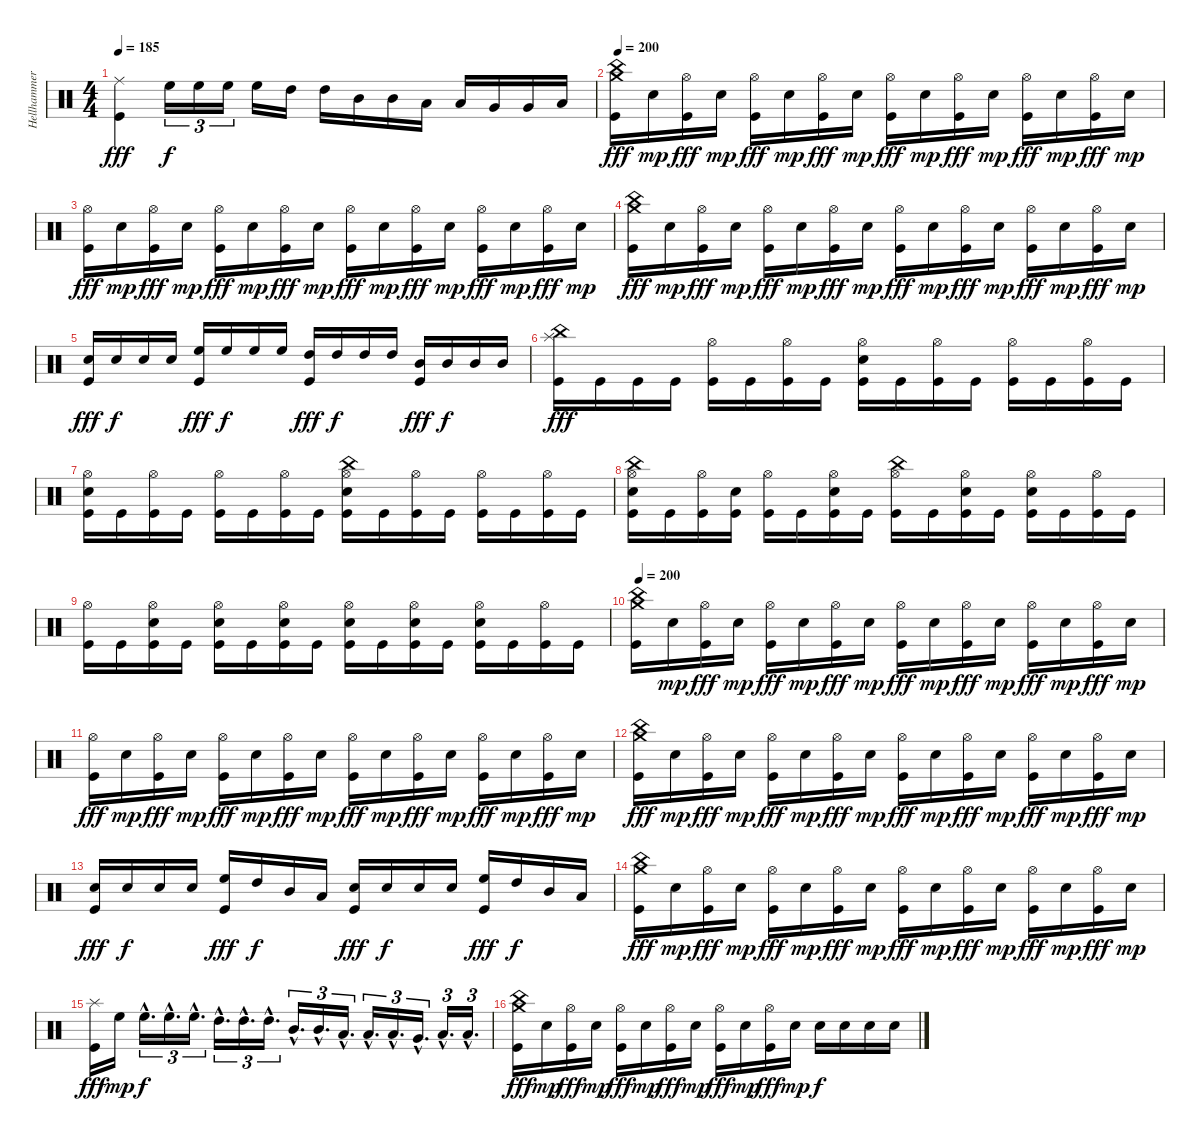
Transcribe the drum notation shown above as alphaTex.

\track ("Hellhammer" "Hellhammer") {instrument percussion}
\staff {score}
\articulation defaults
\ts (4 4)
\tempo 185
\clef neutral
\ks c
("Ride (middle)" "Kick (hit)").4{dy fff} "High Floor Tom (hit)".16{tu (3 2) dy f} "High Floor Tom (hit)".16{tu (3 2)} "High Floor Tom (hit)".16{tu (3 2)} "High Floor Tom (hit)".16 "High Tom (hit)".16 "High Tom (hit)".16 "Mid Tom (hit)".16 "Mid Tom (hit)".16 "Low Tom (hit)".16 "Low Tom (hit)".16 "Very Low Tom (hit)".16 "Very Low Tom (hit)".16 "Low Floor Tom (hit)".16 |
\tempo 200
("China (hit)" "Crash medium (hit)" "Kick (hit)").16{dy fff} "Electric Snare (hit)".16{dy mp} ("Hi-Hat (open)" "Kick (hit)").16{dy fff} "Electric Snare (hit)".16{dy mp} ("Hi-Hat (open)" "Kick (hit)").16{dy fff} "Electric Snare (hit)".16{dy mp} ("Hi-Hat (open)" "Kick (hit)").16{dy fff} "Electric Snare (hit)".16{dy mp} ("Hi-Hat (open)" "Kick (hit)").16{dy fff} "Electric Snare (hit)".16{dy mp} ("Hi-Hat (open)" "Kick (hit)").16{dy fff} "Electric Snare (hit)".16{dy mp} ("Hi-Hat (open)" "Kick (hit)").16{dy fff} "Electric Snare (hit)".16{dy mp} ("Hi-Hat (open)" "Kick (hit)").16{dy fff} "Electric Snare (hit)".16{dy mp} |
("Hi-Hat (open)" "Kick (hit)").16{dy fff} "Electric Snare (hit)".16{dy mp} ("Hi-Hat (open)" "Kick (hit)").16{dy fff} "Electric Snare (hit)".16{dy mp} ("Hi-Hat (open)" "Kick (hit)").16{dy fff} "Electric Snare (hit)".16{dy mp} ("Hi-Hat (open)" "Kick (hit)").16{dy fff} "Electric Snare (hit)".16{dy mp} ("Hi-Hat (open)" "Kick (hit)").16{dy fff} "Electric Snare (hit)".16{dy mp} ("Hi-Hat (open)" "Kick (hit)").16{dy fff} "Electric Snare (hit)".16{dy mp} ("Hi-Hat (open)" "Kick (hit)").16{dy fff} "Electric Snare (hit)".16{dy mp} ("Hi-Hat (open)" "Kick (hit)").16{dy fff} "Electric Snare (hit)".16{dy mp} |
("China (hit)" "Crash medium (hit)" "Kick (hit)").16{dy fff} "Electric Snare (hit)".16{dy mp} ("Hi-Hat (open)" "Kick (hit)").16{dy fff} "Electric Snare (hit)".16{dy mp} ("Hi-Hat (open)" "Kick (hit)").16{dy fff} "Electric Snare (hit)".16{dy mp} ("Hi-Hat (open)" "Kick (hit)").16{dy fff} "Electric Snare (hit)".16{dy mp} ("Hi-Hat (open)" "Kick (hit)").16{dy fff} "Electric Snare (hit)".16{dy mp} ("Hi-Hat (open)" "Kick (hit)").16{dy fff} "Electric Snare (hit)".16{dy mp} ("Hi-Hat (open)" "Kick (hit)").16{dy fff} "Electric Snare (hit)".16{dy mp} ("Hi-Hat (open)" "Kick (hit)").16{dy fff} "Electric Snare (hit)".16{dy mp} |
("Electric Snare (hit)" "Kick (hit)").16{dy fff} "Electric Snare (hit)".16{dy f} "Electric Snare (hit)".16 "Electric Snare (hit)".16 ("High Floor Tom (hit)" "Kick (hit)").16{dy fff} "High Floor Tom (hit)".16{dy f} "High Floor Tom (hit)".16 "High Floor Tom (hit)".16 ("High Tom (hit)" "Kick (hit)").16{dy fff} "High Tom (hit)".16{dy f} "High Tom (hit)".16 "High Tom (hit)".16 ("Mid Tom (hit)" "Kick (hit)").16{dy fff} "Mid Tom (hit)".16{dy f} "Mid Tom (hit)".16 "Mid Tom (hit)".16 |
("Splash (hit)" "China (hit)" "Kick (hit)").16{dy fff} "Kick (hit)".16 "Kick (hit)".16 "Kick (hit)".16 ("Hi-Hat (open)" "Kick (hit)").16 "Kick (hit)".16 ("Hi-Hat (open)" "Kick (hit)").16 "Kick (hit)".16 ("Hi-Hat (open)" "Electric Snare (hit)" "Kick (hit)").16 "Kick (hit)".16 ("Hi-Hat (open)" "Kick (hit)").16 "Kick (hit)".16 ("Hi-Hat (open)" "Kick (hit)").16 "Kick (hit)".16 ("Hi-Hat (open)" "Kick (hit)").16 "Kick (hit)".16 |
("Hi-Hat (open)" "Electric Snare (hit)" "Kick (hit)").16 "Kick (hit)".16 ("Hi-Hat (open)" "Kick (hit)").16 "Kick (hit)".16 ("Hi-Hat (open)" "Kick (hit)").16 "Kick (hit)".16 ("Hi-Hat (open)" "Kick (hit)").16 "Kick (hit)".16 ("China (hit)" "Hi-Hat (open)" "Electric Snare (hit)" "Kick (hit)").16 "Kick (hit)".16 ("Hi-Hat (open)" "Kick (hit)").16 "Kick (hit)".16 ("Hi-Hat (open)" "Kick (hit)").16 "Kick (hit)".16 ("Hi-Hat (open)" "Kick (hit)").16 "Kick (hit)".16 |
("China (hit)" "Hi-Hat (open)" "Electric Snare (hit)" "Kick (hit)").16 "Kick (hit)".16 ("Hi-Hat (open)" "Kick (hit)").16 ("Electric Snare (hit)" "Kick (hit)").16 ("Hi-Hat (open)" "Kick (hit)").16 "Kick (hit)".16 ("Hi-Hat (open)" "Electric Snare (hit)" "Kick (hit)").16 "Kick (hit)".16 ("China (hit)" "Hi-Hat (open)" "Kick (hit)").16 "Kick (hit)".16 ("Hi-Hat (open)" "Electric Snare (hit)" "Kick (hit)").16 "Kick (hit)".16 ("Hi-Hat (open)" "Electric Snare (hit)" "Kick (hit)").16 "Kick (hit)".16 ("Hi-Hat (open)" "Kick (hit)").16 "Kick (hit)".16 |
("Hi-Hat (open)" "Kick (hit)").16 "Kick (hit)".16 ("Hi-Hat (open)" "Electric Snare (hit)" "Kick (hit)").16 "Kick (hit)".16 ("Hi-Hat (open)" "Electric Snare (hit)" "Kick (hit)").16 "Kick (hit)".16 ("Hi-Hat (open)" "Electric Snare (hit)" "Kick (hit)").16 "Kick (hit)".16 ("Hi-Hat (open)" "Electric Snare (hit)" "Kick (hit)").16 "Kick (hit)".16 ("Hi-Hat (open)" "Electric Snare (hit)" "Kick (hit)").16 "Kick (hit)".16 ("Hi-Hat (open)" "Electric Snare (hit)" "Kick (hit)").16 "Kick (hit)".16 ("Hi-Hat (open)" "Kick (hit)").16 "Kick (hit)".16 |
\tempo 200
("China (hit)" "Crash medium (hit)" "Kick (hit)").16 "Electric Snare (hit)".16{dy mp} ("Hi-Hat (open)" "Kick (hit)").16{dy fff} "Electric Snare (hit)".16{dy mp} ("Hi-Hat (open)" "Kick (hit)").16{dy fff} "Electric Snare (hit)".16{dy mp} ("Hi-Hat (open)" "Kick (hit)").16{dy fff} "Electric Snare (hit)".16{dy mp} ("Hi-Hat (open)" "Kick (hit)").16{dy fff} "Electric Snare (hit)".16{dy mp} ("Hi-Hat (open)" "Kick (hit)").16{dy fff} "Electric Snare (hit)".16{dy mp} ("Hi-Hat (open)" "Kick (hit)").16{dy fff} "Electric Snare (hit)".16{dy mp} ("Hi-Hat (open)" "Kick (hit)").16{dy fff} "Electric Snare (hit)".16{dy mp} |
("Hi-Hat (open)" "Kick (hit)").16{dy fff} "Electric Snare (hit)".16{dy mp} ("Hi-Hat (open)" "Kick (hit)").16{dy fff} "Electric Snare (hit)".16{dy mp} ("Hi-Hat (open)" "Kick (hit)").16{dy fff} "Electric Snare (hit)".16{dy mp} ("Hi-Hat (open)" "Kick (hit)").16{dy fff} "Electric Snare (hit)".16{dy mp} ("Hi-Hat (open)" "Kick (hit)").16{dy fff} "Electric Snare (hit)".16{dy mp} ("Hi-Hat (open)" "Kick (hit)").16{dy fff} "Electric Snare (hit)".16{dy mp} ("Hi-Hat (open)" "Kick (hit)").16{dy fff} "Electric Snare (hit)".16{dy mp} ("Hi-Hat (open)" "Kick (hit)").16{dy fff} "Electric Snare (hit)".16{dy mp} |
("China (hit)" "Crash medium (hit)" "Kick (hit)").16{dy fff} "Electric Snare (hit)".16{dy mp} ("Hi-Hat (open)" "Kick (hit)").16{dy fff} "Electric Snare (hit)".16{dy mp} ("Hi-Hat (open)" "Kick (hit)").16{dy fff} "Electric Snare (hit)".16{dy mp} ("Hi-Hat (open)" "Kick (hit)").16{dy fff} "Electric Snare (hit)".16{dy mp} ("Hi-Hat (open)" "Kick (hit)").16{dy fff} "Electric Snare (hit)".16{dy mp} ("Hi-Hat (open)" "Kick (hit)").16{dy fff} "Electric Snare (hit)".16{dy mp} ("Hi-Hat (open)" "Kick (hit)").16{dy fff} "Electric Snare (hit)".16{dy mp} ("Hi-Hat (open)" "Kick (hit)").16{dy fff} "Electric Snare (hit)".16{dy mp} |
("Electric Snare (hit)" "Kick (hit)").16{dy fff} "Electric Snare (hit)".16{dy f} "Electric Snare (hit)".16 "Electric Snare (hit)".16 ("High Floor Tom (hit)" "Kick (hit)").16{dy fff} "High Tom (hit)".16{dy f} "Mid Tom (hit)".16 "Low Tom (hit)".16 ("Electric Snare (hit)" "Kick (hit)").16{dy fff} "Electric Snare (hit)".16{dy f} "Electric Snare (hit)".16 "Electric Snare (hit)".16 ("High Floor Tom (hit)" "Kick (hit)").16{dy fff} "High Tom (hit)".16{dy f} "Mid Tom (hit)".16 "Low Tom (hit)".16 |
("China (hit)" "Crash medium (hit)" "Kick (hit)").16{dy fff} "Electric Snare (hit)".16{dy mp} ("Hi-Hat (open)" "Kick (hit)").16{dy fff} "Electric Snare (hit)".16{dy mp} ("Hi-Hat (open)" "Kick (hit)").16{dy fff} "Electric Snare (hit)".16{dy mp} ("Hi-Hat (open)" "Kick (hit)").16{dy fff} "Electric Snare (hit)".16{dy mp} ("Hi-Hat (open)" "Kick (hit)").16{dy fff} "Electric Snare (hit)".16{dy mp} ("Hi-Hat (open)" "Kick (hit)").16{dy fff} "Electric Snare (hit)".16{dy mp} ("Hi-Hat (open)" "Kick (hit)").16{dy fff} "Electric Snare (hit)".16{dy mp} ("Hi-Hat (open)" "Kick (hit)").16{dy fff} "Electric Snare (hit)".16{dy mp} |
("Splash (hit)" "Kick (hit)").16{dy fff} "High Floor Tom (hit)".16{dy mp} "High Floor Tom (hit)"{hac}.16{d tu (3 2) dy f} "High Floor Tom (hit)"{hac}.16{d tu (3 2)} "High Floor Tom (hit)"{hac}.16{d tu (3 2)} "High Tom (hit)"{hac}.16{d tu (3 2)} "High Tom (hit)"{hac}.16{d tu (3 2)} "High Tom (hit)"{hac}.16{d tu (3 2)} "Mid Tom (hit)"{hac}.16{d tu (3 2)} "Mid Tom (hit)"{hac}.16{d tu (3 2)} "Low Tom (hit)"{hac}.16{d tu (3 2)} "Low Tom (hit)"{hac}.16{d tu (3 2)} "Low Tom (hit)"{hac}.16{d tu (3 2)} "Very Low Tom (hit)"{hac}.16{d tu (3 2)} "Low Floor Tom (hit)"{hac}.16{d tu (3 2)} "Low Floor Tom (hit)"{hac}.16{d tu (3 2)} |
("China (hit)" "Crash medium (hit)" "Kick (hit)").16{dy fff} "Electric Snare (hit)".16{dy mp} ("Hi-Hat (open)" "Kick (hit)").16{dy fff} "Electric Snare (hit)".16{dy mp} ("Hi-Hat (open)" "Kick (hit)").16{dy fff} "Electric Snare (hit)".16{dy mp} ("Hi-Hat (open)" "Kick (hit)").16{dy fff} "Electric Snare (hit)".16{dy mp} ("Hi-Hat (open)" "Kick (hit)").16{dy fff} "Electric Snare (hit)".16{dy mp} ("Hi-Hat (open)" "Kick (hit)").16{dy fff} "Electric Snare (hit)".16{dy mp} "Electric Snare (hit)".16{dy f} "Electric Snare (hit)".16 "Electric Snare (hit)".16 "Electric Snare (hit)".16
